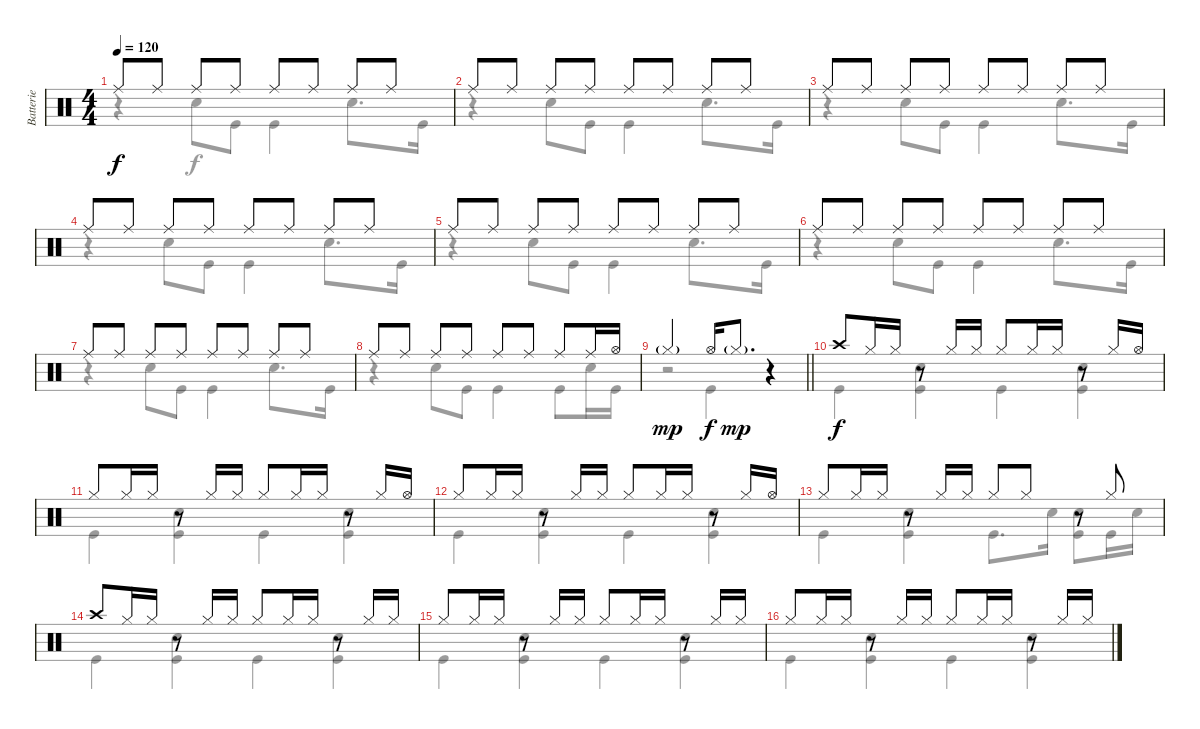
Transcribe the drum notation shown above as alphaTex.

\track ("Batterie" "Batterie") {instrument percussion}
\staff {score}
\articulation defaults
\voice
\ts (4 4)
\tempo 120
\clef neutral
\ks c "Ride (middle)".8{dy f} "Ride (middle)".8 "Ride (middle)".8 "Ride (middle)".8 "Ride (middle)".8 "Ride (middle)".8 "Ride (middle)".8 "Ride (middle)".8
|
"Ride (middle)".8 "Ride (middle)".8 "Ride (middle)".8 "Ride (middle)".8 "Ride (middle)".8 "Ride (middle)".8 "Ride (middle)".8 "Ride (middle)".8 |
"Ride (middle)".8 "Ride (middle)".8 "Ride (middle)".8 "Ride (middle)".8 "Ride (middle)".8 "Ride (middle)".8 "Ride (middle)".8 "Ride (middle)".8 |
"Ride (middle)".8 "Ride (middle)".8 "Ride (middle)".8 "Ride (middle)".8 "Ride (middle)".8 "Ride (middle)".8 "Ride (middle)".8 "Ride (middle)".8 |
"Ride (middle)".8 "Ride (middle)".8 "Ride (middle)".8 "Ride (middle)".8 "Ride (middle)".8 "Ride (middle)".8 "Ride (middle)".8 "Ride (middle)".8 |
"Ride (middle)".8 "Ride (middle)".8 "Ride (middle)".8 "Ride (middle)".8 "Ride (middle)".8 "Ride (middle)".8 "Ride (middle)".8 "Ride (middle)".8 |
"Ride (middle)".8 "Ride (middle)".8 "Ride (middle)".8 "Ride (middle)".8 "Ride (middle)".8 "Ride (middle)".8 "Ride (middle)".8 "Ride (middle)".8 |
"Ride (middle)".8 "Ride (middle)".8 "Ride (middle)".8 "Ride (middle)".8 "Ride (middle)".8 "Ride (middle)".8 "Ride (middle)".8 "Ride (middle)".16 "Hi-Hat (open)".16 |
\barLineRight lightlight "Hi-Hat (closed)"{g}.2{dy mp} "Hi-Hat (open)".16{dy f} "Hi-Hat (closed)"{g}.8{d dy mp}
r.4 |
"Crash high (hit)".8{dy f} "Hi-Hat (closed)".16 "Hi-Hat (closed)".16 r.8 "Hi-Hat (closed)".16 "Hi-Hat (closed)".16 "Hi-Hat (closed)".8 "Hi-Hat (closed)".16 "Hi-Hat (closed)".16 r.8 "Hi-Hat (closed)".16 "Hi-Hat (open)".16 |
"Hi-Hat (closed)".8 "Hi-Hat (closed)".16 "Hi-Hat (closed)".16 r.8 "Hi-Hat (closed)".16 "Hi-Hat (closed)".16 "Hi-Hat (closed)".8 "Hi-Hat (closed)".16 "Hi-Hat (closed)".16 r.8 "Hi-Hat (closed)".16 "Hi-Hat (open)".16 |
"Hi-Hat (closed)".8 "Hi-Hat (closed)".16 "Hi-Hat (closed)".16 r.8 "Hi-Hat (closed)".16 "Hi-Hat (closed)".16 "Hi-Hat (closed)".8 "Hi-Hat (closed)".16 "Hi-Hat (closed)".16 r.8 "Hi-Hat (closed)".16 "Hi-Hat (open)".16 |
"Hi-Hat (closed)".8 "Hi-Hat (closed)".16 "Hi-Hat (closed)".16 r.8 "Hi-Hat (closed)".16 "Hi-Hat (closed)".16 "Hi-Hat (closed)".8 "Hi-Hat (closed)".8 r.8 "Hi-Hat (closed)".8 |
"Crash high (hit)".8 "Hi-Hat (closed)".16 "Hi-Hat (closed)".16 r.8 "Hi-Hat (closed)".16 "Hi-Hat (closed)".16 "Hi-Hat (closed)".8 "Hi-Hat (closed)".16 "Hi-Hat (closed)".16 r.8 "Hi-Hat (closed)".16 "Hi-Hat (closed)".16 |
"Hi-Hat (closed)".8 "Hi-Hat (closed)".16 "Hi-Hat (closed)".16 r.8 "Hi-Hat (closed)".16 "Hi-Hat (closed)".16 "Hi-Hat (closed)".8 "Hi-Hat (closed)".16 "Hi-Hat (closed)".16 r.8 "Hi-Hat (closed)".16 "Hi-Hat (closed)".16 |
"Hi-Hat (closed)".8 "Hi-Hat (closed)".16 "Hi-Hat (closed)".16 r.8 "Hi-Hat (closed)".16 "Hi-Hat (closed)".16 "Hi-Hat (closed)".8 "Hi-Hat (closed)".16 "Hi-Hat (closed)".16 r.8 "Hi-Hat (closed)".16 "Hi-Hat (closed)".16
\voice
\clef neutral
\ottava regular
\simile none
\ks c
r.4{dy f} "Snare (hit) 2".8 "Kick (hit)".8 "Kick (hit)".4 "Snare (hit) 2".8{d} "Kick (hit)".16 |
r.4 "Snare (hit) 2".8 "Kick (hit)".8 "Kick (hit)".4 "Snare (hit) 2".8{d} "Kick (hit)".16 |
r.4 "Snare (hit) 2".8 "Kick (hit)".8 "Kick (hit)".4 "Snare (hit) 2".8{d} "Kick (hit)".16 |
r.4 "Snare (hit) 2".8 "Kick (hit)".8 "Kick (hit)".4 "Snare (hit) 2".8{d} "Kick (hit)".16 |
r.4 "Snare (hit) 2".8 "Kick (hit)".8 "Kick (hit)".4 "Snare (hit) 2".8{d} "Kick (hit)".16 |
r.4 "Snare (hit) 2".8 "Kick (hit)".8 "Kick (hit)".4 "Snare (hit) 2".8{d} "Kick (hit)".16 |
r.4 "Snare (hit) 2".8 "Kick (hit)".8 "Kick (hit)".4 "Snare (hit) 2".8{d} "Kick (hit)".16 |
r.4 "Snare (hit) 2".8 "Kick (hit)".8 "Kick (hit)".4 "Kick (hit)".8 "Snare (hit) 2".16 "Kick (hit)".16 |
\barLineRight lightlight
r.2 "Kick (hit)".4 r.4 |
"Kick (hit)".4 ("Snare (hit) 2" "Kick (hit)").4 "Kick (hit)".4 ("Snare (hit) 2" "Kick (hit)").4 |
"Kick (hit)".4 ("Snare (hit) 2" "Kick (hit)").4 "Kick (hit)".4 ("Snare (hit) 2" "Kick (hit)").4 |
"Kick (hit)".4 ("Snare (hit) 2" "Kick (hit)").4 "Kick (hit)".4 ("Snare (hit) 2" "Kick (hit)").4 |
"Kick (hit)".4 ("Snare (hit) 2" "Kick (hit)").4 "Kick (hit)".8{d} "Snare (hit) 2".16 ("Snare (hit) 2" "Kick (hit)").8 "Kick (hit)".16 "Snare (hit) 2".16 |
"Kick (hit)".4 ("Snare (hit) 2" "Kick (hit)").4 "Kick (hit)".4 ("Snare (hit) 2" "Kick (hit)").4 |
"Kick (hit)".4 ("Snare (hit) 2" "Kick (hit)").4 "Kick (hit)".4 ("Snare (hit) 2" "Kick (hit)").4 |
"Kick (hit)".4 ("Snare (hit) 2" "Kick (hit)").4 "Kick (hit)".4 ("Snare (hit) 2" "Kick (hit)").4
